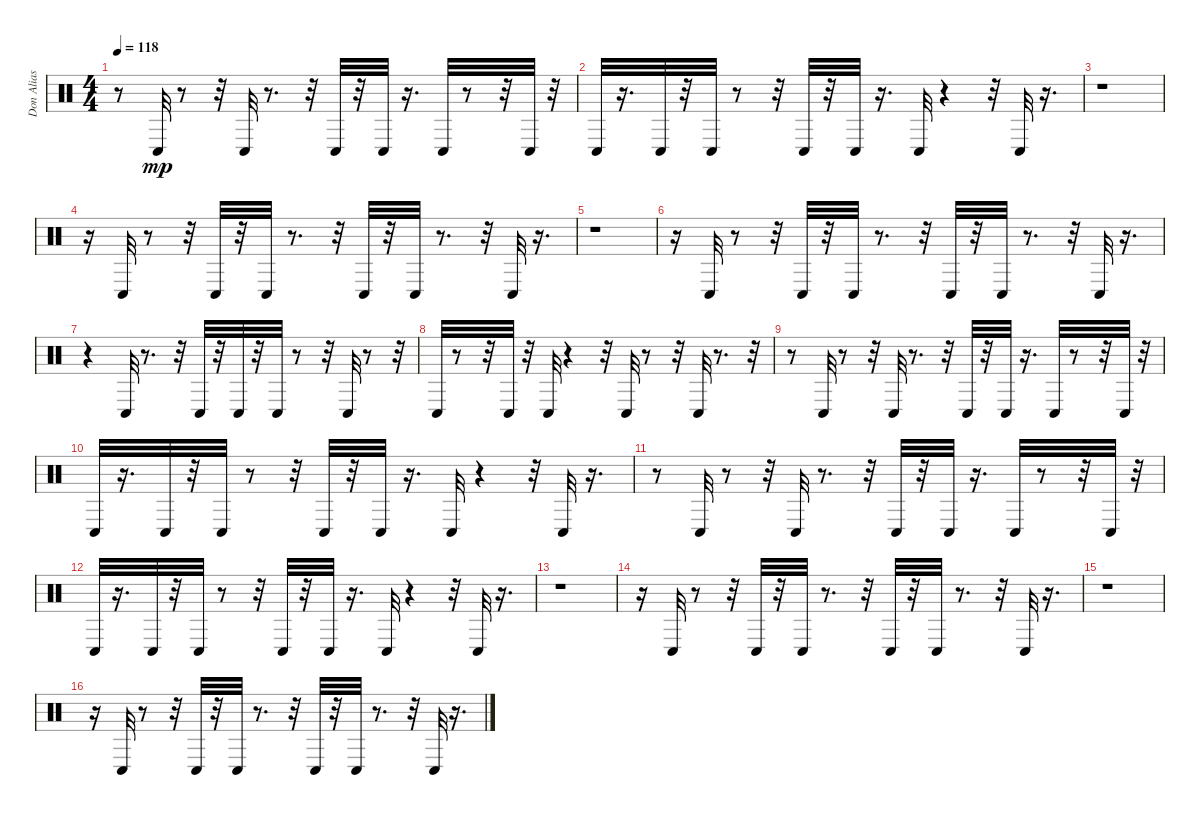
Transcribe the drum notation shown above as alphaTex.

\track ("Don Alias" "Don Alias") {instrument percussion}
\staff {score}
\articulation defaults
\ts (4 4)
\tempo 118
\clef neutral
\ks c
r.8{dy mp} "Conga low (hit)".32 r.8 r.32 "Conga low (hit)".32 r.8{d} r.32 "Conga low (hit)".32 r.32 "Conga low (hit)".32 r.16{d} "Conga low (hit)".32 r.8 r.32 "Conga low (hit)".32 r.32 |
"Conga low (hit)".32 r.16{d} "Conga low (hit)".32 r.32 "Conga low (hit)".32 r.8 r.32 "Conga low (hit)".32 r.32 "Conga low (hit)".32 r.16{d} "Conga low (hit)".32 r.4 r.32 "Conga low (hit)".32 r.16{d} |
r.1 |
r.16 "Conga low (hit)".32 r.8 r.32 "Conga low (hit)".32 r.32 "Conga low (hit)".32 r.8{d} r.32 "Conga low (hit)".32 r.32 "Conga low (hit)".32 r.8{d} r.32 "Conga low (hit)".32 r.16{d} |
r.1 |
r.16 "Conga low (hit)".32 r.8 r.32 "Conga low (hit)".32 r.32 "Conga low (hit)".32 r.8{d} r.32 "Conga low (hit)".32 r.32 "Conga low (hit)".32 r.8{d} r.32 "Conga low (hit)".32 r.16{d} |
r.4 "Conga low (hit)".32 r.8{d} r.32 "Conga low (hit)".32 r.32 "Conga low (hit)".32 r.32 "Conga low (hit)".32 r.8 r.32 "Conga low (hit)".32 r.8 r.32 |
"Conga low (hit)".32 r.8 r.32 "Conga low (hit)".32 r.32 "Conga low (hit)".32 r.4 r.32 "Conga low (hit)".32 r.8 r.32 "Conga low (hit)".32 r.8{d} r.32 |
r.8 "Conga low (hit)".32 r.8 r.32 "Conga low (hit)".32 r.8{d} r.32 "Conga low (hit)".32 r.32 "Conga low (hit)".32 r.16{d} "Conga low (hit)".32 r.8 r.32 "Conga low (hit)".32 r.32 |
"Conga low (hit)".32 r.16{d} "Conga low (hit)".32 r.32 "Conga low (hit)".32 r.8 r.32 "Conga low (hit)".32 r.32 "Conga low (hit)".32 r.16{d} "Conga low (hit)".32 r.4 r.32 "Conga low (hit)".32 r.16{d} |
r.8 "Conga low (hit)".32 r.8 r.32 "Conga low (hit)".32 r.8{d} r.32 "Conga low (hit)".32 r.32 "Conga low (hit)".32 r.16{d} "Conga low (hit)".32 r.8 r.32 "Conga low (hit)".32 r.32 |
"Conga low (hit)".32 r.16{d} "Conga low (hit)".32 r.32 "Conga low (hit)".32 r.8 r.32 "Conga low (hit)".32 r.32 "Conga low (hit)".32 r.16{d} "Conga low (hit)".32 r.4 r.32 "Conga low (hit)".32 r.16{d} |
r.1 |
r.16 "Conga low (hit)".32 r.8 r.32 "Conga low (hit)".32 r.32 "Conga low (hit)".32 r.8{d} r.32 "Conga low (hit)".32 r.32 "Conga low (hit)".32 r.8{d} r.32 "Conga low (hit)".32 r.16{d} |
r.1 |
r.16 "Conga low (hit)".32 r.8 r.32 "Conga low (hit)".32 r.32 "Conga low (hit)".32 r.8{d} r.32 "Conga low (hit)".32 r.32 "Conga low (hit)".32 r.8{d} r.32 "Conga low (hit)".32 r.16{d}
